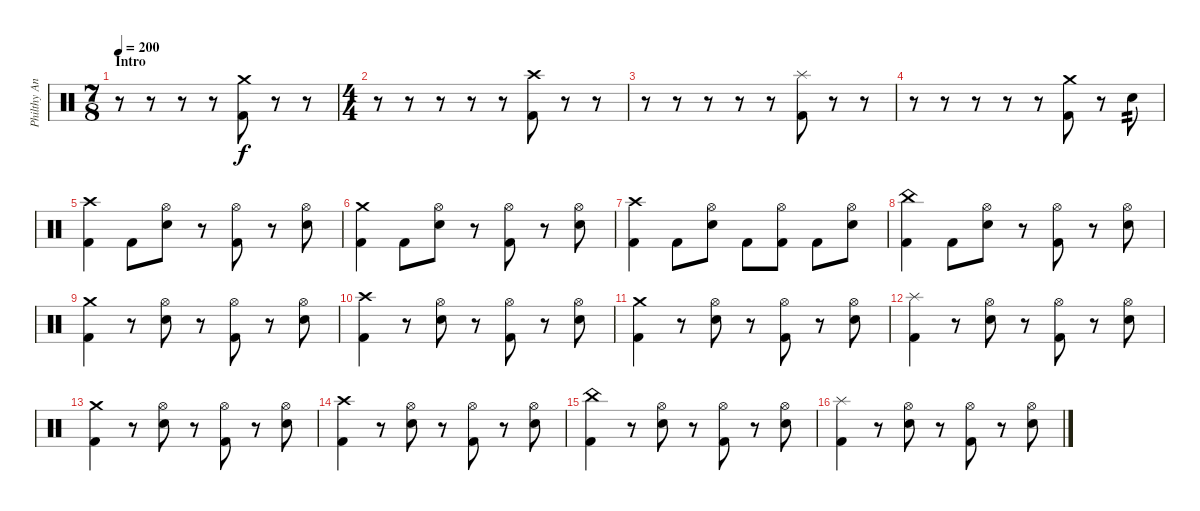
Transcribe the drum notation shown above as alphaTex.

\track ("Philthy Animal Taylor" "Philthy An") {instrument percussion}
\staff {score}
\articulation defaults
\ts (7 8)
\section ("" "Intro")
\tempo 200
\clef neutral
\ks c
r.8{dy f} r.8 r.8 r.8 ("Crash medium (hit)" "Kick (hit) 2").8 r.8 r.8 |
\ts (4 4)
r.8 r.8 r.8 r.8 r.8 ("Crash high (hit)" "Kick (hit) 2").8 r.8 r.8 |
r.8 r.8 r.8 r.8 r.8 ("Splash (hit)" "Kick (hit) 2").8 r.8 r.8 |
r.8 r.8 r.8 r.8 r.8 ("Crash medium (hit)" "Kick (hit) 2").8 r.8 "Electric Snare (hit)".8{tp 2} |
("Crash high (hit)" "Kick (hit) 2").4 "Kick (hit) 2".8 ("Hi-Hat (open)" "Electric Snare (hit)").8 r.8 ("Hi-Hat (open)" "Kick (hit) 2").8 r.8 ("Hi-Hat (open)" "Electric Snare (hit)").8 |
("Crash medium (hit)" "Kick (hit) 2").4 "Kick (hit) 2".8 ("Hi-Hat (open)" "Electric Snare (hit)").8 r.8 ("Hi-Hat (open)" "Kick (hit) 2").8 r.8 ("Hi-Hat (open)" "Electric Snare (hit)").8 |
("Crash high (hit)" "Kick (hit) 2").4 "Kick (hit) 2".8 ("Hi-Hat (open)" "Electric Snare (hit)").8 "Kick (hit) 2".8 ("Hi-Hat (open)" "Kick (hit) 2").8 "Kick (hit) 2".8 ("Hi-Hat (open)" "Electric Snare (hit)").8 |
("China (hit)" "Kick (hit) 2").4 "Kick (hit) 2".8 ("Hi-Hat (open)" "Electric Snare (hit)").8 r.8 ("Hi-Hat (open)" "Kick (hit) 2").8 r.8 ("Hi-Hat (open)" "Electric Snare (hit)").8 |
("Crash medium (hit)" "Kick (hit) 2").4 r.8 ("Hi-Hat (open)" "Electric Snare (hit)").8 r.8 ("Hi-Hat (open)" "Kick (hit) 2").8 r.8 ("Hi-Hat (open)" "Electric Snare (hit)").8 |
("Crash high (hit)" "Kick (hit) 2").4 r.8 ("Hi-Hat (open)" "Electric Snare (hit)").8 r.8 ("Hi-Hat (open)" "Kick (hit) 2").8 r.8 ("Hi-Hat (open)" "Electric Snare (hit)").8 |
("Crash medium (hit)" "Kick (hit) 2").4 r.8 ("Hi-Hat (open)" "Electric Snare (hit)").8 r.8 ("Hi-Hat (open)" "Kick (hit) 2").8 r.8 ("Hi-Hat (open)" "Electric Snare (hit)").8 |
("Splash (hit)" "Kick (hit) 2").4 r.8 ("Hi-Hat (open)" "Electric Snare (hit)").8 r.8 ("Hi-Hat (open)" "Kick (hit) 2").8 r.8 ("Hi-Hat (open)" "Electric Snare (hit)").8 |
("Crash medium (hit)" "Kick (hit) 2").4 r.8 ("Hi-Hat (open)" "Electric Snare (hit)").8 r.8 ("Hi-Hat (open)" "Kick (hit) 2").8 r.8 ("Hi-Hat (open)" "Electric Snare (hit)").8 |
("Crash high (hit)" "Kick (hit) 2").4 r.8 ("Hi-Hat (open)" "Electric Snare (hit)").8 r.8 ("Hi-Hat (open)" "Kick (hit) 2").8 r.8 ("Hi-Hat (open)" "Electric Snare (hit)").8 |
("China (hit)" "Kick (hit) 2").4 r.8 ("Hi-Hat (open)" "Electric Snare (hit)").8 r.8 ("Hi-Hat (open)" "Kick (hit) 2").8 r.8 ("Hi-Hat (open)" "Electric Snare (hit)").8 |
("Splash (hit)" "Kick (hit) 2").4 r.8 ("Hi-Hat (open)" "Electric Snare (hit)").8 r.8 ("Hi-Hat (open)" "Kick (hit) 2").8 r.8 ("Hi-Hat (open)" "Electric Snare (hit)").8
